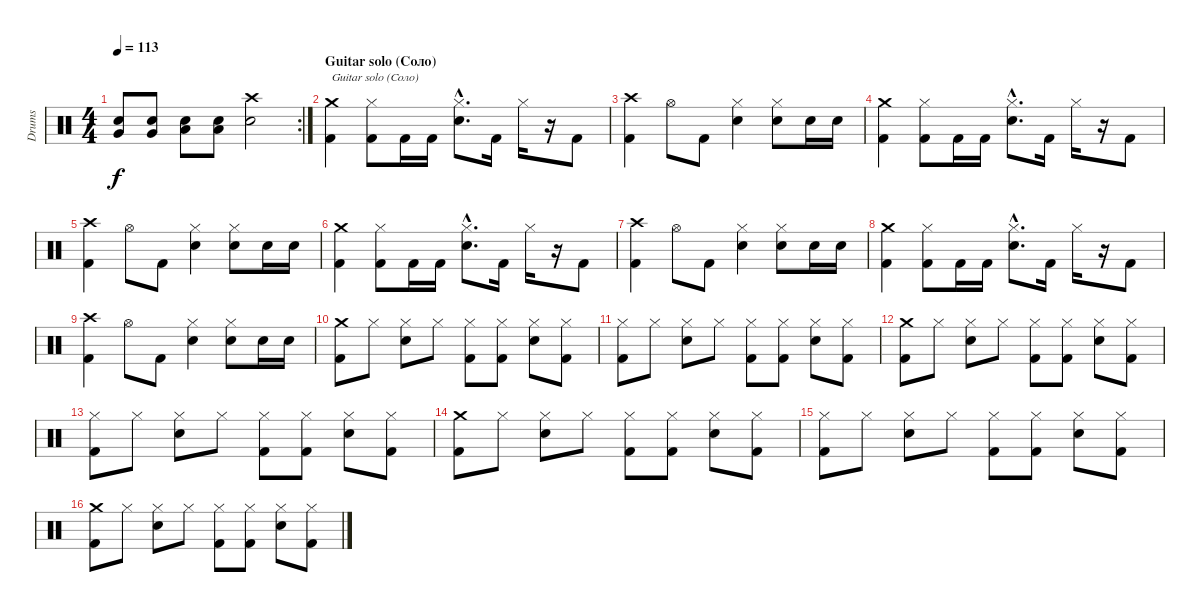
\track ("Drums" "Drums") {instrument percussion}
\staff {score}
\articulation defaults
\rc 2
\ts (4 4)
\tempo 113
\clef neutral
\ks c
("Snare (hit) 2" "Very Low Tom (hit)").8{dy f} ("Snare (hit) 2" "Very Low Tom (hit)").8 ("Snare (hit) 2" "Low Floor Tom (hit)").8 ("Snare (hit) 2" "Low Floor Tom (hit)").8 ("Snare (hit) 2" "Crash high (hit)").2 |
\section ("" "Guitar solo (Соло)")
("Kick (hit) 2" "Crash medium (hit)").4{txt "Guitar solo (Соло)"} ("Kick (hit) 2" "Hi-Hat (closed)").8 "Kick (hit) 2".16 "Kick (hit) 2".16 ("Snare (hit) 2"{hac} "Hi-Hat (closed)"{hac}).8{d} "Kick (hit) 2".16 "Hi-Hat (closed)".16 r.16 "Kick (hit) 2".8 |
("Kick (hit) 2" "Crash high (hit)").4 "Hi-Hat (open)".8 "Kick (hit) 2".8 ("Snare (hit) 2" "Hi-Hat (closed)").4 ("Snare (hit) 2" "Hi-Hat (closed)").8 "Snare (hit) 2".16 "Snare (hit) 2".16 |
("Kick (hit) 2" "Crash medium (hit)").4 ("Kick (hit) 2" "Hi-Hat (closed)").8 "Kick (hit) 2".16 "Kick (hit) 2".16 ("Snare (hit) 2"{hac} "Hi-Hat (closed)"{hac}).8{d} "Kick (hit) 2".16 "Hi-Hat (closed)".16 r.16 "Kick (hit) 2".8 |
("Kick (hit) 2" "Crash high (hit)").4 "Hi-Hat (open)".8 "Kick (hit) 2".8 ("Snare (hit) 2" "Hi-Hat (closed)").4 ("Snare (hit) 2" "Hi-Hat (closed)").8 "Snare (hit) 2".16 "Snare (hit) 2".16 |
("Kick (hit) 2" "Crash medium (hit)").4 ("Kick (hit) 2" "Hi-Hat (closed)").8 "Kick (hit) 2".16 "Kick (hit) 2".16 ("Snare (hit) 2"{hac} "Hi-Hat (closed)"{hac}).8{d} "Kick (hit) 2".16 "Hi-Hat (closed)".16 r.16 "Kick (hit) 2".8 |
("Kick (hit) 2" "Crash high (hit)").4 "Hi-Hat (open)".8 "Kick (hit) 2".8 ("Snare (hit) 2" "Hi-Hat (closed)").4 ("Snare (hit) 2" "Hi-Hat (closed)").8 "Snare (hit) 2".16 "Snare (hit) 2".16 |
("Kick (hit) 2" "Crash medium (hit)").4 ("Kick (hit) 2" "Hi-Hat (closed)").8 "Kick (hit) 2".16 "Kick (hit) 2".16 ("Snare (hit) 2"{hac} "Hi-Hat (closed)"{hac}).8{d} "Kick (hit) 2".16 "Hi-Hat (closed)".16 r.16 "Kick (hit) 2".8 |
("Kick (hit) 2" "Crash high (hit)").4 "Hi-Hat (open)".8 "Kick (hit) 2".8 ("Snare (hit) 2" "Hi-Hat (closed)").4 ("Snare (hit) 2" "Hi-Hat (closed)").8 "Snare (hit) 2".16 "Snare (hit) 2".16 |
("Kick (hit) 2" "Crash medium (hit)").8 "Hi-Hat (closed)".8 ("Snare (hit) 2" "Hi-Hat (closed)").8 "Hi-Hat (closed)".8 ("Kick (hit) 2" "Hi-Hat (closed)").8 ("Kick (hit) 2" "Hi-Hat (closed)").8 ("Snare (hit) 2" "Hi-Hat (closed)").8 ("Kick (hit) 2" "Hi-Hat (closed)").8 |
("Kick (hit) 2" "Hi-Hat (closed)").8 "Hi-Hat (closed)".8 ("Snare (hit) 2" "Hi-Hat (closed)").8 "Hi-Hat (closed)".8 ("Kick (hit) 2" "Hi-Hat (closed)").8 ("Kick (hit) 2" "Hi-Hat (closed)").8 ("Snare (hit) 2" "Hi-Hat (closed)").8 ("Kick (hit) 2" "Hi-Hat (closed)").8 |
("Kick (hit) 2" "Crash medium (hit)").8 "Hi-Hat (closed)".8 ("Snare (hit) 2" "Hi-Hat (closed)").8 "Hi-Hat (closed)".8 ("Kick (hit) 2" "Hi-Hat (closed)").8 ("Kick (hit) 2" "Hi-Hat (closed)").8 ("Snare (hit) 2" "Hi-Hat (closed)").8 ("Kick (hit) 2" "Hi-Hat (closed)").8 |
("Kick (hit) 2" "Hi-Hat (closed)").8 "Hi-Hat (closed)".8 ("Snare (hit) 2" "Hi-Hat (closed)").8 "Hi-Hat (closed)".8 ("Kick (hit) 2" "Hi-Hat (closed)").8 ("Kick (hit) 2" "Hi-Hat (closed)").8 ("Snare (hit) 2" "Hi-Hat (closed)").8 ("Kick (hit) 2" "Hi-Hat (closed)").8 |
("Kick (hit) 2" "Crash medium (hit)").8 "Hi-Hat (closed)".8 ("Snare (hit) 2" "Hi-Hat (closed)").8 "Hi-Hat (closed)".8 ("Kick (hit) 2" "Hi-Hat (closed)").8 ("Kick (hit) 2" "Hi-Hat (closed)").8 ("Snare (hit) 2" "Hi-Hat (closed)").8 ("Kick (hit) 2" "Hi-Hat (closed)").8 |
("Kick (hit) 2" "Hi-Hat (closed)").8 "Hi-Hat (closed)".8 ("Snare (hit) 2" "Hi-Hat (closed)").8 "Hi-Hat (closed)".8 ("Kick (hit) 2" "Hi-Hat (closed)").8 ("Kick (hit) 2" "Hi-Hat (closed)").8 ("Snare (hit) 2" "Hi-Hat (closed)").8 ("Kick (hit) 2" "Hi-Hat (closed)").8 |
("Kick (hit) 2" "Crash medium (hit)").8 "Hi-Hat (closed)".8 ("Snare (hit) 2" "Hi-Hat (closed)").8 "Hi-Hat (closed)".8 ("Kick (hit) 2" "Hi-Hat (closed)").8 ("Kick (hit) 2" "Hi-Hat (closed)").8 ("Snare (hit) 2" "Hi-Hat (closed)").8 ("Kick (hit) 2" "Hi-Hat (closed)").8
